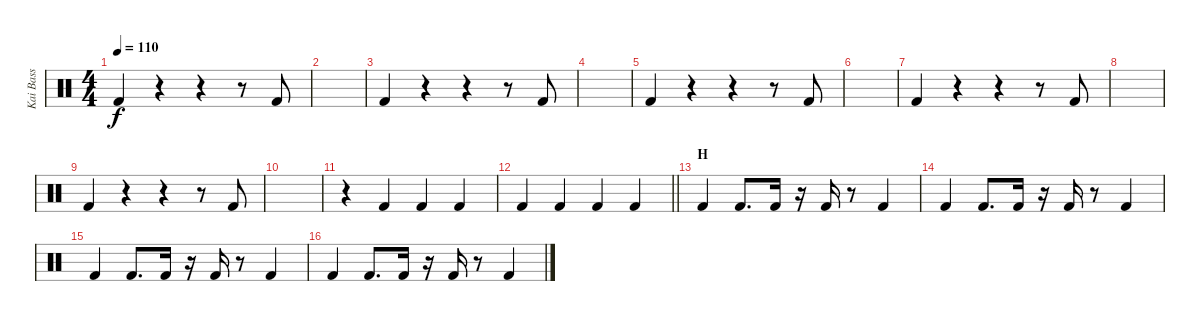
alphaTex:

\track ("Kai Bass" "Kai Bass") {instrument percussion}
\staff {score}
\articulation defaults
\ts (4 4)
\tempo 110
\clef neutral
\ks c "Kick (hit) 2".4{dy f}
r.4 r.4 r.8 "Kick (hit) 2".8 |
|
"Kick (hit) 2".4 r.4 r.4 r.8 "Kick (hit) 2".8 |
|
"Kick (hit) 2".4 r.4 r.4 r.8 "Kick (hit) 2".8 |
|
"Kick (hit) 2".4 r.4 r.4 r.8 "Kick (hit) 2".8 |
|
"Kick (hit) 2".4 r.4 r.4 r.8 "Kick (hit) 2".8 |
|
r.4 "Kick (hit) 2".4 "Kick (hit) 2".4 "Kick (hit) 2".4 |
\barLineRight lightlight "Kick (hit) 2".4 "Kick (hit) 2".4 "Kick (hit) 2".4 "Kick (hit) 2".4
|
\section ("" "H")
"Kick (hit) 2".4 "Kick (hit) 2".8{d} "Kick (hit) 2".16 r.16 "Kick (hit) 2".16 r.8 "Kick (hit) 2".4 |
"Kick (hit) 2".4 "Kick (hit) 2".8{d} "Kick (hit) 2".16 r.16 "Kick (hit) 2".16 r.8 "Kick (hit) 2".4 |
"Kick (hit) 2".4 "Kick (hit) 2".8{d} "Kick (hit) 2".16 r.16 "Kick (hit) 2".16 r.8 "Kick (hit) 2".4 |
"Kick (hit) 2".4 "Kick (hit) 2".8{d} "Kick (hit) 2".16 r.16 "Kick (hit) 2".16 r.8 "Kick (hit) 2".4
